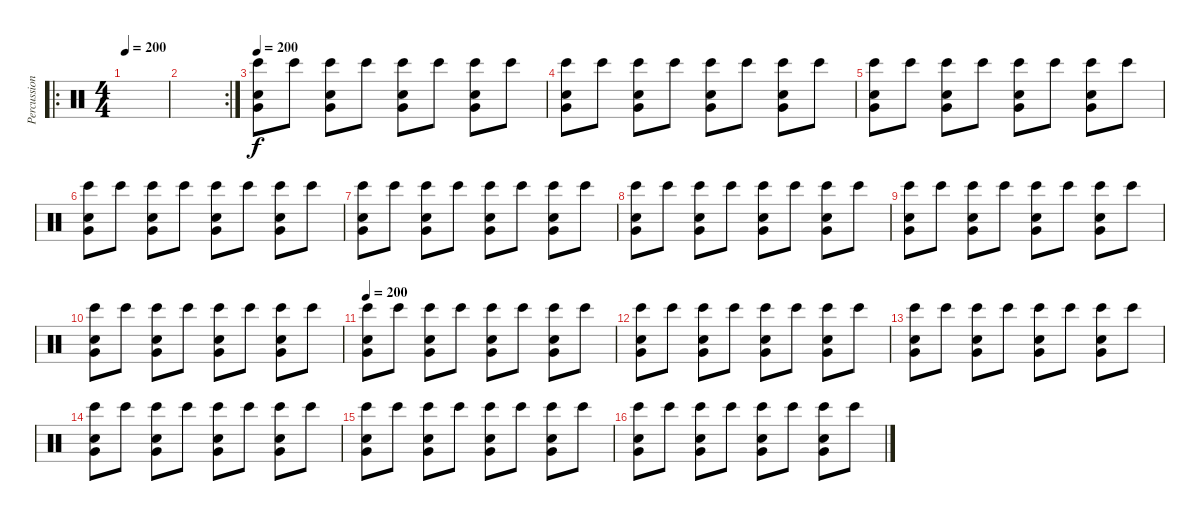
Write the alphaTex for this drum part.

\track ("Percussion" "Percussion") {instrument percussion}
\staff {score}
\articulation defaults
\ro
\ts (4 4)
\tempo 200
\clef neutral
\ks c
|
\rc 2
|
\tempo 200
("Very Low Tom (hit)" "Bongo High (hit)" "Snare (hit) 2").8 "Bongo High (hit)".8 ("Very Low Tom (hit)" "Bongo High (hit)" "Snare (hit) 2").8 "Bongo High (hit)".8 ("Very Low Tom (hit)" "Bongo High (hit)" "Snare (hit) 2").8 "Bongo High (hit)".8 ("Very Low Tom (hit)" "Bongo High (hit)" "Snare (hit) 2").8 "Bongo High (hit)".8 |
("Very Low Tom (hit)" "Bongo High (hit)" "Snare (hit) 2").8 "Bongo High (hit)".8 ("Very Low Tom (hit)" "Bongo High (hit)" "Snare (hit) 2").8 "Bongo High (hit)".8 ("Very Low Tom (hit)" "Bongo High (hit)" "Snare (hit) 2").8 "Bongo High (hit)".8 ("Very Low Tom (hit)" "Bongo High (hit)" "Snare (hit) 2").8 "Bongo High (hit)".8 |
("Very Low Tom (hit)" "Bongo High (hit)" "Snare (hit) 2").8 "Bongo High (hit)".8 ("Very Low Tom (hit)" "Bongo High (hit)" "Snare (hit) 2").8 "Bongo High (hit)".8 ("Very Low Tom (hit)" "Bongo High (hit)" "Snare (hit) 2").8 "Bongo High (hit)".8 ("Very Low Tom (hit)" "Bongo High (hit)" "Snare (hit) 2").8 "Bongo High (hit)".8 |
("Very Low Tom (hit)" "Bongo High (hit)" "Snare (hit) 2").8 "Bongo High (hit)".8 ("Very Low Tom (hit)" "Bongo High (hit)" "Snare (hit) 2").8 "Bongo High (hit)".8 ("Very Low Tom (hit)" "Bongo High (hit)" "Snare (hit) 2").8 "Bongo High (hit)".8 ("Very Low Tom (hit)" "Bongo High (hit)" "Snare (hit) 2").8 "Bongo High (hit)".8 |
("Very Low Tom (hit)" "Bongo High (hit)" "Snare (hit) 2").8 "Bongo High (hit)".8 ("Very Low Tom (hit)" "Bongo High (hit)" "Snare (hit) 2").8 "Bongo High (hit)".8 ("Very Low Tom (hit)" "Bongo High (hit)" "Snare (hit) 2").8 "Bongo High (hit)".8 ("Very Low Tom (hit)" "Bongo High (hit)" "Snare (hit) 2").8 "Bongo High (hit)".8 |
("Very Low Tom (hit)" "Bongo High (hit)" "Snare (hit) 2").8 "Bongo High (hit)".8 ("Very Low Tom (hit)" "Bongo High (hit)" "Snare (hit) 2").8 "Bongo High (hit)".8 ("Very Low Tom (hit)" "Bongo High (hit)" "Snare (hit) 2").8 "Bongo High (hit)".8 ("Very Low Tom (hit)" "Bongo High (hit)" "Snare (hit) 2").8 "Bongo High (hit)".8 |
("Very Low Tom (hit)" "Bongo High (hit)" "Snare (hit) 2").8 "Bongo High (hit)".8 ("Very Low Tom (hit)" "Bongo High (hit)" "Snare (hit) 2").8 "Bongo High (hit)".8 ("Very Low Tom (hit)" "Bongo High (hit)" "Snare (hit) 2").8 "Bongo High (hit)".8 ("Very Low Tom (hit)" "Bongo High (hit)" "Snare (hit) 2").8 "Bongo High (hit)".8 |
("Very Low Tom (hit)" "Bongo High (hit)" "Snare (hit) 2").8 "Bongo High (hit)".8 ("Very Low Tom (hit)" "Bongo High (hit)" "Snare (hit) 2").8 "Bongo High (hit)".8 ("Very Low Tom (hit)" "Bongo High (hit)" "Snare (hit) 2").8 "Bongo High (hit)".8 ("Very Low Tom (hit)" "Bongo High (hit)" "Snare (hit) 2").8 "Bongo High (hit)".8 |
\tempo 200
("Very Low Tom (hit)" "Bongo High (hit)" "Snare (hit) 2").8 "Bongo High (hit)".8 ("Very Low Tom (hit)" "Bongo High (hit)" "Snare (hit) 2").8 "Bongo High (hit)".8 ("Very Low Tom (hit)" "Bongo High (hit)" "Snare (hit) 2").8 "Bongo High (hit)".8 ("Very Low Tom (hit)" "Bongo High (hit)" "Snare (hit) 2").8 "Bongo High (hit)".8 |
("Very Low Tom (hit)" "Bongo High (hit)" "Snare (hit) 2").8 "Bongo High (hit)".8 ("Very Low Tom (hit)" "Bongo High (hit)" "Snare (hit) 2").8 "Bongo High (hit)".8 ("Very Low Tom (hit)" "Bongo High (hit)" "Snare (hit) 2").8 "Bongo High (hit)".8 ("Very Low Tom (hit)" "Bongo High (hit)" "Snare (hit) 2").8 "Bongo High (hit)".8 |
("Very Low Tom (hit)" "Bongo High (hit)" "Snare (hit) 2").8 "Bongo High (hit)".8 ("Very Low Tom (hit)" "Bongo High (hit)" "Snare (hit) 2").8 "Bongo High (hit)".8 ("Very Low Tom (hit)" "Bongo High (hit)" "Snare (hit) 2").8 "Bongo High (hit)".8 ("Very Low Tom (hit)" "Bongo High (hit)" "Snare (hit) 2").8 "Bongo High (hit)".8 |
("Very Low Tom (hit)" "Bongo High (hit)" "Snare (hit) 2").8 "Bongo High (hit)".8 ("Very Low Tom (hit)" "Bongo High (hit)" "Snare (hit) 2").8 "Bongo High (hit)".8 ("Very Low Tom (hit)" "Bongo High (hit)" "Snare (hit) 2").8 "Bongo High (hit)".8 ("Very Low Tom (hit)" "Bongo High (hit)" "Snare (hit) 2").8 "Bongo High (hit)".8 |
("Very Low Tom (hit)" "Bongo High (hit)" "Snare (hit) 2").8 "Bongo High (hit)".8 ("Very Low Tom (hit)" "Bongo High (hit)" "Snare (hit) 2").8 "Bongo High (hit)".8 ("Very Low Tom (hit)" "Bongo High (hit)" "Snare (hit) 2").8 "Bongo High (hit)".8 ("Very Low Tom (hit)" "Bongo High (hit)" "Snare (hit) 2").8 "Bongo High (hit)".8 |
("Very Low Tom (hit)" "Bongo High (hit)" "Snare (hit) 2").8 "Bongo High (hit)".8 ("Very Low Tom (hit)" "Bongo High (hit)" "Snare (hit) 2").8 "Bongo High (hit)".8 ("Very Low Tom (hit)" "Bongo High (hit)" "Snare (hit) 2").8 "Bongo High (hit)".8 ("Very Low Tom (hit)" "Bongo High (hit)" "Snare (hit) 2").8 "Bongo High (hit)".8
